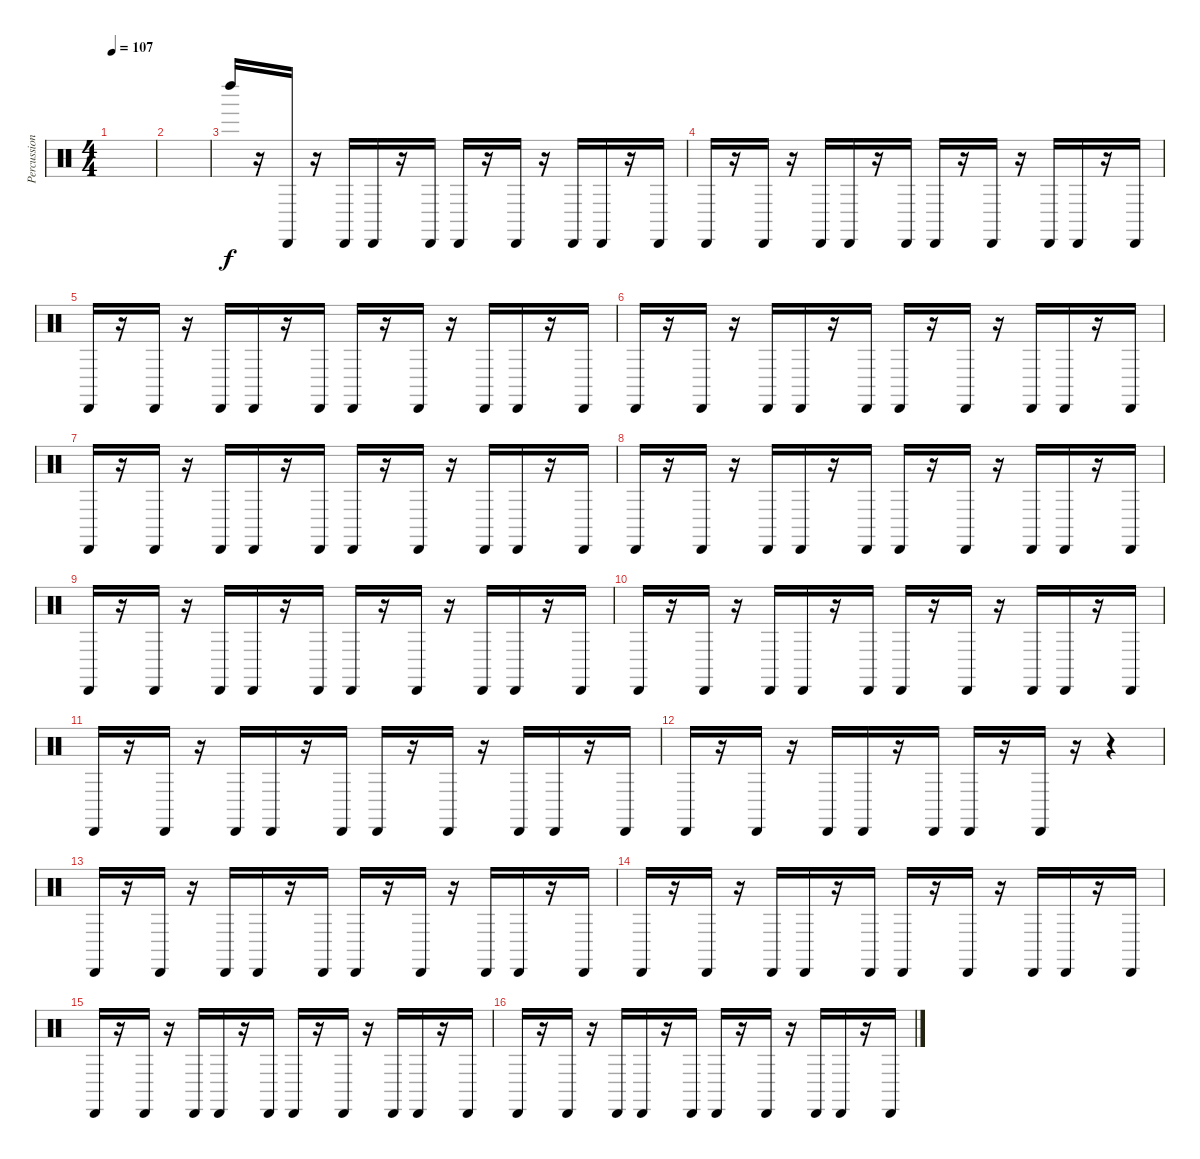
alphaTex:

\track ("Percussioni" "Percussion") {instrument percussion}
\staff {score}
\articulation defaults
\ts (4 4)
\tempo 107
\clef neutral
\ks c
|
|
"Left Maraca (hit)".16 r.16 "Cabasa (hit)".16 r.16 "Cabasa (hit)".16 "Cabasa (hit)".16 r.16 "Cabasa (hit)".16 "Cabasa (hit)".16 r.16 "Cabasa (hit)".16 r.16 "Cabasa (hit)".16 "Cabasa (hit)".16 r.16 "Cabasa (hit)".16 |
"Cabasa (hit)".16 r.16 "Cabasa (hit)".16 r.16 "Cabasa (hit)".16 "Cabasa (hit)".16 r.16 "Cabasa (hit)".16 "Cabasa (hit)".16 r.16 "Cabasa (hit)".16 r.16 "Cabasa (hit)".16 "Cabasa (hit)".16 r.16 "Cabasa (hit)".16 |
"Cabasa (hit)".16 r.16 "Cabasa (hit)".16 r.16 "Cabasa (hit)".16 "Cabasa (hit)".16 r.16 "Cabasa (hit)".16 "Cabasa (hit)".16 r.16 "Cabasa (hit)".16 r.16 "Cabasa (hit)".16 "Cabasa (hit)".16 r.16 "Cabasa (hit)".16 |
"Cabasa (hit)".16 r.16 "Cabasa (hit)".16 r.16 "Cabasa (hit)".16 "Cabasa (hit)".16 r.16 "Cabasa (hit)".16 "Cabasa (hit)".16 r.16 "Cabasa (hit)".16 r.16 "Cabasa (hit)".16 "Cabasa (hit)".16 r.16 "Cabasa (hit)".16 |
"Cabasa (hit)".16 r.16 "Cabasa (hit)".16 r.16 "Cabasa (hit)".16 "Cabasa (hit)".16 r.16 "Cabasa (hit)".16 "Cabasa (hit)".16 r.16 "Cabasa (hit)".16 r.16 "Cabasa (hit)".16 "Cabasa (hit)".16 r.16 "Cabasa (hit)".16 |
"Cabasa (hit)".16 r.16 "Cabasa (hit)".16 r.16 "Cabasa (hit)".16 "Cabasa (hit)".16 r.16 "Cabasa (hit)".16 "Cabasa (hit)".16 r.16 "Cabasa (hit)".16 r.16 "Cabasa (hit)".16 "Cabasa (hit)".16 r.16 "Cabasa (hit)".16 |
"Cabasa (hit)".16 r.16 "Cabasa (hit)".16 r.16 "Cabasa (hit)".16 "Cabasa (hit)".16 r.16 "Cabasa (hit)".16 "Cabasa (hit)".16 r.16 "Cabasa (hit)".16 r.16 "Cabasa (hit)".16 "Cabasa (hit)".16 r.16 "Cabasa (hit)".16 |
"Cabasa (hit)".16 r.16 "Cabasa (hit)".16 r.16 "Cabasa (hit)".16 "Cabasa (hit)".16 r.16 "Cabasa (hit)".16 "Cabasa (hit)".16 r.16 "Cabasa (hit)".16 r.16 "Cabasa (hit)".16 "Cabasa (hit)".16 r.16 "Cabasa (hit)".16 |
"Cabasa (hit)".16 r.16 "Cabasa (hit)".16 r.16 "Cabasa (hit)".16 "Cabasa (hit)".16 r.16 "Cabasa (hit)".16 "Cabasa (hit)".16 r.16 "Cabasa (hit)".16 r.16 "Cabasa (hit)".16 "Cabasa (hit)".16 r.16 "Cabasa (hit)".16 |
"Cabasa (hit)".16 r.16 "Cabasa (hit)".16 r.16 "Cabasa (hit)".16 "Cabasa (hit)".16 r.16 "Cabasa (hit)".16 "Cabasa (hit)".16 r.16 "Cabasa (hit)".16 r.16 r.4 |
"Cabasa (hit)".16 r.16 "Cabasa (hit)".16 r.16 "Cabasa (hit)".16 "Cabasa (hit)".16 r.16 "Cabasa (hit)".16 "Cabasa (hit)".16 r.16 "Cabasa (hit)".16 r.16 "Cabasa (hit)".16 "Cabasa (hit)".16 r.16 "Cabasa (hit)".16 |
"Cabasa (hit)".16 r.16 "Cabasa (hit)".16 r.16 "Cabasa (hit)".16 "Cabasa (hit)".16 r.16 "Cabasa (hit)".16 "Cabasa (hit)".16 r.16 "Cabasa (hit)".16 r.16 "Cabasa (hit)".16 "Cabasa (hit)".16 r.16 "Cabasa (hit)".16 |
"Cabasa (hit)".16 r.16 "Cabasa (hit)".16 r.16 "Cabasa (hit)".16 "Cabasa (hit)".16 r.16 "Cabasa (hit)".16 "Cabasa (hit)".16 r.16 "Cabasa (hit)".16 r.16 "Cabasa (hit)".16 "Cabasa (hit)".16 r.16 "Cabasa (hit)".16 |
"Cabasa (hit)".16 r.16 "Cabasa (hit)".16 r.16 "Cabasa (hit)".16 "Cabasa (hit)".16 r.16 "Cabasa (hit)".16 "Cabasa (hit)".16 r.16 "Cabasa (hit)".16 r.16 "Cabasa (hit)".16 "Cabasa (hit)".16 r.16 "Cabasa (hit)".16
